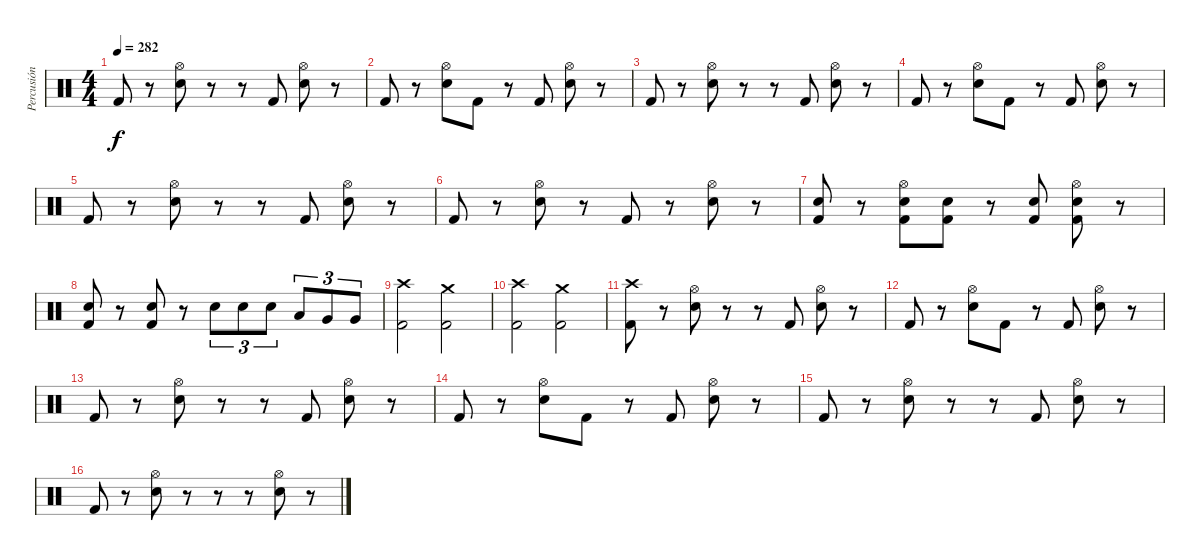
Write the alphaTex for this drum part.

\track ("Percusión" "Percusión") {instrument percussion}
\staff {score}
\articulation defaults
\ts (4 4)
\tempo 282
\clef neutral
\ks c "Kick (hit) 2".8{dy f}
r.8 ("Snare (hit) 2" "Hi-Hat (open)").8 r.8 r.8 "Kick (hit) 2".8 ("Snare (hit) 2" "Hi-Hat (open)").8 r.8 |
"Kick (hit) 2".8 r.8 ("Snare (hit) 2" "Hi-Hat (open)").8 "Kick (hit) 2".8 r.8 "Kick (hit) 2".8 ("Snare (hit) 2" "Hi-Hat (open)").8 r.8 |
"Kick (hit) 2".8 r.8 ("Snare (hit) 2" "Hi-Hat (open)").8 r.8 r.8 "Kick (hit) 2".8 ("Snare (hit) 2" "Hi-Hat (open)").8 r.8 |
"Kick (hit) 2".8 r.8 ("Snare (hit) 2" "Hi-Hat (open)").8 "Kick (hit) 2".8 r.8 "Kick (hit) 2".8 ("Snare (hit) 2" "Hi-Hat (open)").8 r.8 |
"Kick (hit) 2".8 r.8 ("Snare (hit) 2" "Hi-Hat (open)").8 r.8 r.8 "Kick (hit) 2".8 ("Snare (hit) 2" "Hi-Hat (open)").8 r.8 |
"Kick (hit) 2".8 r.8 ("Snare (hit) 2" "Hi-Hat (open)").8 r.8 "Kick (hit) 2".8 r.8 ("Snare (hit) 2" "Hi-Hat (open)").8 r.8 |
("Kick (hit) 2" "Snare (hit) 2").8 r.8 ("Kick (hit) 2" "Snare (hit) 2" "Hi-Hat (open)").8 ("Kick (hit) 2" "Snare (hit) 2").8 r.8 ("Kick (hit) 2" "Snare (hit) 2").8 ("Kick (hit) 2" "Snare (hit) 2" "Hi-Hat (open)").8 r.8 |
("Kick (hit) 2" "Snare (hit) 2").8 r.8 ("Kick (hit) 2" "Snare (hit) 2").8 r.8 "Snare (hit) 2".8{tu (3 2)} "Snare (hit) 2".8{tu (3 2)} "Snare (hit) 2".8{tu (3 2)} "Low Tom (hit)".8{tu (3 2)} "Very Low Tom (hit)".8{tu (3 2)} "Very Low Tom (hit)".8{tu (3 2)} |
("Kick (hit) 2" "Crash high (hit)").2 ("Kick (hit) 2" "Crash medium (hit)").2 |
("Kick (hit) 2" "Crash high (hit)").2 ("Kick (hit) 2" "Crash medium (hit)").2 |
("Kick (hit) 2" "Crash high (hit)").8 r.8 ("Snare (hit) 2" "Hi-Hat (open)").8 r.8 r.8 "Kick (hit) 2".8 ("Snare (hit) 2" "Hi-Hat (open)").8 r.8 |
"Kick (hit) 2".8 r.8 ("Snare (hit) 2" "Hi-Hat (open)").8 "Kick (hit) 2".8 r.8 "Kick (hit) 2".8 ("Snare (hit) 2" "Hi-Hat (open)").8 r.8 |
"Kick (hit) 2".8 r.8 ("Snare (hit) 2" "Hi-Hat (open)").8 r.8 r.8 "Kick (hit) 2".8 ("Snare (hit) 2" "Hi-Hat (open)").8 r.8 |
"Kick (hit) 2".8 r.8 ("Snare (hit) 2" "Hi-Hat (open)").8 "Kick (hit) 2".8 r.8 "Kick (hit) 2".8 ("Snare (hit) 2" "Hi-Hat (open)").8 r.8 |
"Kick (hit) 2".8 r.8 ("Snare (hit) 2" "Hi-Hat (open)").8 r.8 r.8 "Kick (hit) 2".8 ("Snare (hit) 2" "Hi-Hat (open)").8 r.8 |
"Kick (hit) 2".8 r.8 ("Snare (hit) 2" "Hi-Hat (open)").8 r.8 r.8 r.8 ("Snare (hit) 2" "Hi-Hat (open)").8 r.8
